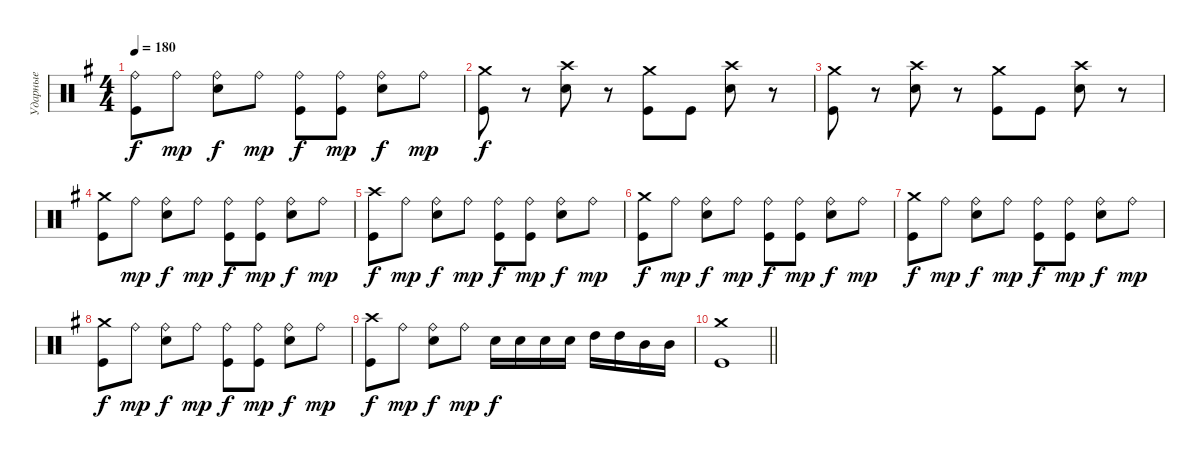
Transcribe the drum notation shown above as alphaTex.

\track ("Ударные" "Ударные") {instrument percussion}
\staff {score}
\articulation defaults
\ts (4 4)
\tempo 180
\clef neutral
\ks g
("Ride (bell)" "Kick (hit)").8{dy f} "Ride (bell)".8{dy mp} ("Ride (bell)" "Electric Snare (hit)").8{dy f} "Ride (bell)".8{dy mp} ("Ride (bell)" "Kick (hit)").8{dy f} ("Ride (bell)" "Kick (hit)").8{dy mp} ("Ride (bell)" "Electric Snare (hit)").8{dy f} "Ride (bell)".8{dy mp} |
("Crash medium (hit)" "Kick (hit)").8{dy f} r.8 ("Crash high (hit)" "Electric Snare (hit)").8 r.8 ("Crash medium (hit)" "Kick (hit)").8 "Kick (hit)".8 ("Crash high (hit)" "Electric Snare (hit)").8 r.8 |
("Crash medium (hit)" "Kick (hit)").8 r.8 ("Crash high (hit)" "Electric Snare (hit)").8 r.8 ("Crash medium (hit)" "Kick (hit)").8 "Kick (hit)".8 ("Crash high (hit)" "Electric Snare (hit)").8 r.8 |
("Crash medium (hit)" "Kick (hit)").8 "Ride (bell)".8{dy mp} ("Ride (bell)" "Electric Snare (hit)").8{dy f} "Ride (bell)".8{dy mp} ("Ride (bell)" "Kick (hit)").8{dy f} ("Ride (bell)" "Kick (hit)").8{dy mp} ("Ride (bell)" "Electric Snare (hit)").8{dy f} "Ride (bell)".8{dy mp} |
("Crash high (hit)" "Kick (hit)").8{dy f} "Ride (bell)".8{dy mp} ("Ride (bell)" "Electric Snare (hit)").8{dy f} "Ride (bell)".8{dy mp} ("Ride (bell)" "Kick (hit)").8{dy f} ("Ride (bell)" "Kick (hit)").8{dy mp} ("Ride (bell)" "Electric Snare (hit)").8{dy f} "Ride (bell)".8{dy mp} |
("Crash medium (hit)" "Kick (hit)").8{dy f} "Ride (bell)".8{dy mp} ("Ride (bell)" "Electric Snare (hit)").8{dy f} "Ride (bell)".8{dy mp} ("Ride (bell)" "Kick (hit)").8{dy f} ("Ride (bell)" "Kick (hit)").8{dy mp} ("Ride (bell)" "Electric Snare (hit)").8{dy f} "Ride (bell)".8{dy mp} |
("Crash medium (hit)" "Kick (hit)").8{dy f} "Ride (bell)".8{dy mp} ("Ride (bell)" "Electric Snare (hit)").8{dy f} "Ride (bell)".8{dy mp} ("Ride (bell)" "Kick (hit)").8{dy f} ("Ride (bell)" "Kick (hit)").8{dy mp} ("Ride (bell)" "Electric Snare (hit)").8{dy f} "Ride (bell)".8{dy mp} |
("Crash medium (hit)" "Kick (hit)").8{dy f} "Ride (bell)".8{dy mp} ("Ride (bell)" "Electric Snare (hit)").8{dy f} "Ride (bell)".8{dy mp} ("Ride (bell)" "Kick (hit)").8{dy f} ("Ride (bell)" "Kick (hit)").8{dy mp} ("Ride (bell)" "Electric Snare (hit)").8{dy f} "Ride (bell)".8{dy mp} |
("Crash high (hit)" "Kick (hit)").8{dy f} "Ride (bell)".8{dy mp} ("Ride (bell)" "Electric Snare (hit)").8{dy f} "Ride (bell)".8{dy mp} "Electric Snare (hit)".16{dy f} "Electric Snare (hit)".16 "Electric Snare (hit)".16 "Electric Snare (hit)".16 "High Tom (hit)".16 "High Tom (hit)".16 "Mid Tom (hit)".16 "Mid Tom (hit)".16 |
\barLineRight lightlight
("Crash medium (hit)" "Kick (hit)").1
